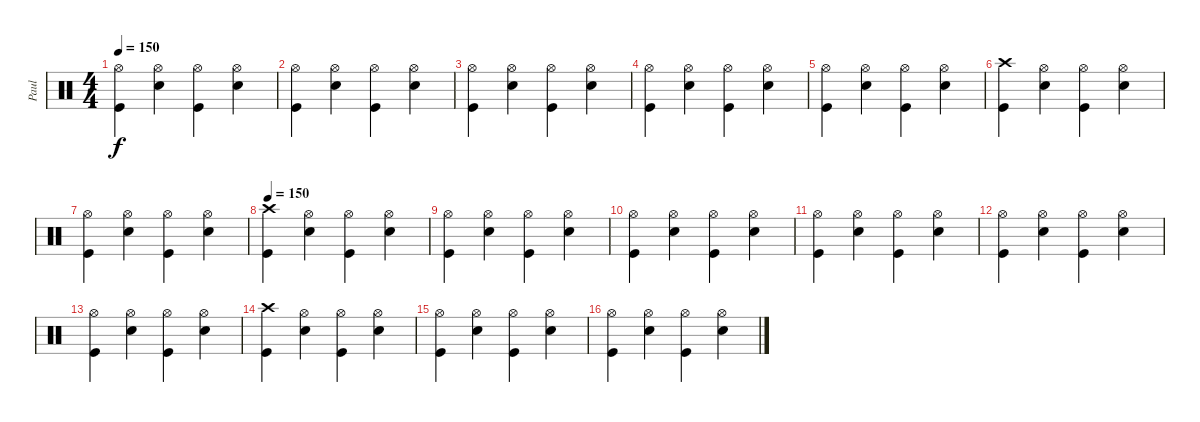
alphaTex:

\track ("Paul" "Paul") {instrument percussion}
\staff {score}
\articulation defaults
\ts (4 4)
\tempo 150
\clef neutral
\ks c
("Hi-Hat (open)" "Kick (hit)").4{dy f} ("Hi-Hat (open)" "Electric Snare (hit)").4 ("Hi-Hat (open)" "Kick (hit)").4 ("Hi-Hat (open)" "Electric Snare (hit)").4 |
("Hi-Hat (open)" "Kick (hit)").4 ("Hi-Hat (open)" "Electric Snare (hit)").4 ("Hi-Hat (open)" "Kick (hit)").4 ("Hi-Hat (open)" "Electric Snare (hit)").4 |
("Hi-Hat (open)" "Kick (hit)").4 ("Hi-Hat (open)" "Electric Snare (hit)").4 ("Hi-Hat (open)" "Kick (hit)").4 ("Hi-Hat (open)" "Electric Snare (hit)").4 |
("Hi-Hat (open)" "Kick (hit)").4 ("Hi-Hat (open)" "Electric Snare (hit)").4 ("Hi-Hat (open)" "Kick (hit)").4 ("Hi-Hat (open)" "Electric Snare (hit)").4 |
("Hi-Hat (open)" "Kick (hit)").4 ("Hi-Hat (open)" "Electric Snare (hit)").4 ("Hi-Hat (open)" "Kick (hit)").4 ("Hi-Hat (open)" "Electric Snare (hit)").4 |
("Crash high (hit)" "Kick (hit)").4 ("Hi-Hat (open)" "Electric Snare (hit)").4 ("Hi-Hat (open)" "Kick (hit)").4 ("Hi-Hat (open)" "Electric Snare (hit)").4 |
("Hi-Hat (open)" "Kick (hit)").4 ("Hi-Hat (open)" "Electric Snare (hit)").4 ("Hi-Hat (open)" "Kick (hit)").4 ("Hi-Hat (open)" "Electric Snare (hit)").4 |
\tempo 150
("Crash high (hit)" "Kick (hit)").4 ("Hi-Hat (open)" "Electric Snare (hit)").4 ("Hi-Hat (open)" "Kick (hit)").4 ("Hi-Hat (open)" "Electric Snare (hit)").4 |
("Hi-Hat (open)" "Kick (hit)").4 ("Hi-Hat (open)" "Electric Snare (hit)").4 ("Hi-Hat (open)" "Kick (hit)").4 ("Hi-Hat (open)" "Electric Snare (hit)").4 |
("Hi-Hat (open)" "Kick (hit)").4 ("Hi-Hat (open)" "Electric Snare (hit)").4 ("Hi-Hat (open)" "Kick (hit)").4 ("Hi-Hat (open)" "Electric Snare (hit)").4 |
("Hi-Hat (open)" "Kick (hit)").4 ("Hi-Hat (open)" "Electric Snare (hit)").4 ("Hi-Hat (open)" "Kick (hit)").4 ("Hi-Hat (open)" "Electric Snare (hit)").4 |
("Hi-Hat (open)" "Kick (hit)").4 ("Hi-Hat (open)" "Electric Snare (hit)").4 ("Hi-Hat (open)" "Kick (hit)").4 ("Hi-Hat (open)" "Electric Snare (hit)").4 |
("Hi-Hat (open)" "Kick (hit)").4 ("Hi-Hat (open)" "Electric Snare (hit)").4 ("Hi-Hat (open)" "Kick (hit)").4 ("Hi-Hat (open)" "Electric Snare (hit)").4 |
("Crash high (hit)" "Kick (hit)").4 ("Hi-Hat (open)" "Electric Snare (hit)").4 ("Hi-Hat (open)" "Kick (hit)").4 ("Hi-Hat (open)" "Electric Snare (hit)").4 |
("Hi-Hat (open)" "Kick (hit)").4 ("Hi-Hat (open)" "Electric Snare (hit)").4 ("Hi-Hat (open)" "Kick (hit)").4 ("Hi-Hat (open)" "Electric Snare (hit)").4 |
("Hi-Hat (open)" "Kick (hit)").4 ("Hi-Hat (open)" "Electric Snare (hit)").4 ("Hi-Hat (open)" "Kick (hit)").4 ("Hi-Hat (open)" "Electric Snare (hit)").4
